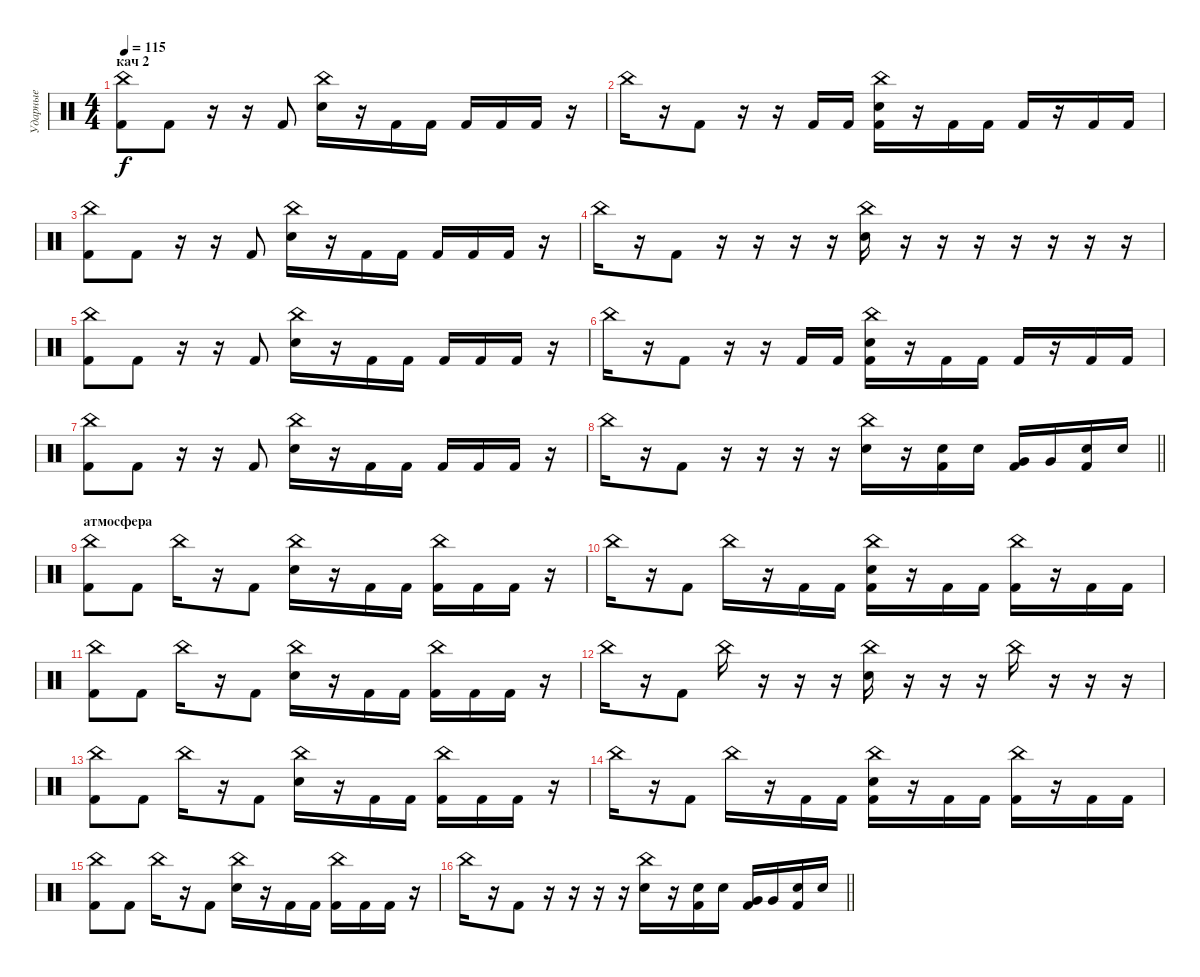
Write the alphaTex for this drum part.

\track ("Ударные" "Ударные") {instrument percussion}
\staff {score}
\articulation defaults
\ts (4 4)
\section ("" "кач 2")
\tempo 115
\clef neutral
\ks c
("China (hit)" "Kick (hit) 2").8{dy f} "Kick (hit) 2".8 r.16 r.16 "Kick (hit) 2".8 ("China (hit)" "Electric Snare (hit)").16 r.16 "Kick (hit) 2".16 "Kick (hit) 2".16 "Kick (hit) 2".16 "Kick (hit) 2".16 "Kick (hit) 2".16 r.16 |
"China (hit)".16 r.16 "Kick (hit) 2".8 r.16 r.16 "Kick (hit) 2".16 "Kick (hit) 2".16 ("China (hit)" "Electric Snare (hit)" "Kick (hit) 2").16 r.16 "Kick (hit) 2".16 "Kick (hit) 2".16 "Kick (hit) 2".16 r.16 "Kick (hit) 2".16 "Kick (hit) 2".16 |
("China (hit)" "Kick (hit) 2").8 "Kick (hit) 2".8 r.16 r.16 "Kick (hit) 2".8 ("China (hit)" "Electric Snare (hit)").16 r.16 "Kick (hit) 2".16 "Kick (hit) 2".16 "Kick (hit) 2".16 "Kick (hit) 2".16 "Kick (hit) 2".16 r.16 |
"China (hit)".16 r.16 "Kick (hit) 2".8 r.16 r.16 r.16 r.16 ("China (hit)" "Electric Snare (hit)").16 r.16 r.16 r.16 r.16 r.16 r.16 r.16 |
("China (hit)" "Kick (hit) 2").8 "Kick (hit) 2".8 r.16 r.16 "Kick (hit) 2".8 ("China (hit)" "Electric Snare (hit)").16 r.16 "Kick (hit) 2".16 "Kick (hit) 2".16 "Kick (hit) 2".16 "Kick (hit) 2".16 "Kick (hit) 2".16 r.16 |
"China (hit)".16 r.16 "Kick (hit) 2".8 r.16 r.16 "Kick (hit) 2".16 "Kick (hit) 2".16 ("China (hit)" "Electric Snare (hit)" "Kick (hit) 2").16 r.16 "Kick (hit) 2".16 "Kick (hit) 2".16 "Kick (hit) 2".16 r.16 "Kick (hit) 2".16 "Kick (hit) 2".16 |
("China (hit)" "Kick (hit) 2").8 "Kick (hit) 2".8 r.16 r.16 "Kick (hit) 2".8 ("China (hit)" "Electric Snare (hit)").16 r.16 "Kick (hit) 2".16 "Kick (hit) 2".16 "Kick (hit) 2".16 "Kick (hit) 2".16 "Kick (hit) 2".16 r.16 |
\barLineRight lightlight "China (hit)".16
r.16 "Kick (hit) 2".8 r.16 r.16 r.16 r.16 ("China (hit)" "Electric Snare (hit)").16 r.16 ("Electric Snare (hit)" "Kick (hit) 2").16 "Electric Snare (hit)".16 ("Very Low Tom (hit)" "Kick (hit) 2").16 "Very Low Tom (hit)".16 ("Electric Snare (hit)" "Kick (hit) 2").16 "Electric Snare (hit)".16 |
\section ("" "атмосфера")
("China (hit)" "Kick (hit) 2").8 "Kick (hit) 2".8 "China (hit)".16 r.16 "Kick (hit) 2".8 ("China (hit)" "Electric Snare (hit)").16 r.16 "Kick (hit) 2".16 "Kick (hit) 2".16 ("China (hit)" "Kick (hit) 2").16 "Kick (hit) 2".16 "Kick (hit) 2".16 r.16 |
"China (hit)".16 r.16 "Kick (hit) 2".8 "China (hit)".16 r.16 "Kick (hit) 2".16 "Kick (hit) 2".16 ("China (hit)" "Electric Snare (hit)" "Kick (hit) 2").16 r.16 "Kick (hit) 2".16 "Kick (hit) 2".16 ("China (hit)" "Kick (hit) 2").16 r.16 "Kick (hit) 2".16 "Kick (hit) 2".16 |
("China (hit)" "Kick (hit) 2").8 "Kick (hit) 2".8 "China (hit)".16 r.16 "Kick (hit) 2".8 ("China (hit)" "Electric Snare (hit)").16 r.16 "Kick (hit) 2".16 "Kick (hit) 2".16 ("China (hit)" "Kick (hit) 2").16 "Kick (hit) 2".16 "Kick (hit) 2".16 r.16 |
"China (hit)".16 r.16 "Kick (hit) 2".8 "China (hit)".16 r.16 r.16 r.16 ("China (hit)" "Electric Snare (hit)").16 r.16 r.16 r.16 "China (hit)".16 r.16 r.16 r.16 |
("China (hit)" "Kick (hit) 2").8 "Kick (hit) 2".8 "China (hit)".16 r.16 "Kick (hit) 2".8 ("China (hit)" "Electric Snare (hit)").16 r.16 "Kick (hit) 2".16 "Kick (hit) 2".16 ("China (hit)" "Kick (hit) 2").16 "Kick (hit) 2".16 "Kick (hit) 2".16 r.16 |
"China (hit)".16 r.16 "Kick (hit) 2".8 "China (hit)".16 r.16 "Kick (hit) 2".16 "Kick (hit) 2".16 ("China (hit)" "Electric Snare (hit)" "Kick (hit) 2").16 r.16 "Kick (hit) 2".16 "Kick (hit) 2".16 ("China (hit)" "Kick (hit) 2").16 r.16 "Kick (hit) 2".16 "Kick (hit) 2".16 |
("China (hit)" "Kick (hit) 2").8 "Kick (hit) 2".8 "China (hit)".16 r.16 "Kick (hit) 2".8 ("China (hit)" "Electric Snare (hit)").16 r.16 "Kick (hit) 2".16 "Kick (hit) 2".16 ("China (hit)" "Kick (hit) 2").16 "Kick (hit) 2".16 "Kick (hit) 2".16 r.16 |
\barLineRight lightlight "China (hit)".16
r.16 "Kick (hit) 2".8 r.16 r.16 r.16 r.16 ("China (hit)" "Electric Snare (hit)").16 r.16 ("Electric Snare (hit)" "Kick (hit) 2").16 "Electric Snare (hit)".16 ("Very Low Tom (hit)" "Kick (hit) 2").16 "Very Low Tom (hit)".16 ("Electric Snare (hit)" "Kick (hit) 2").16 "Electric Snare (hit)".16
